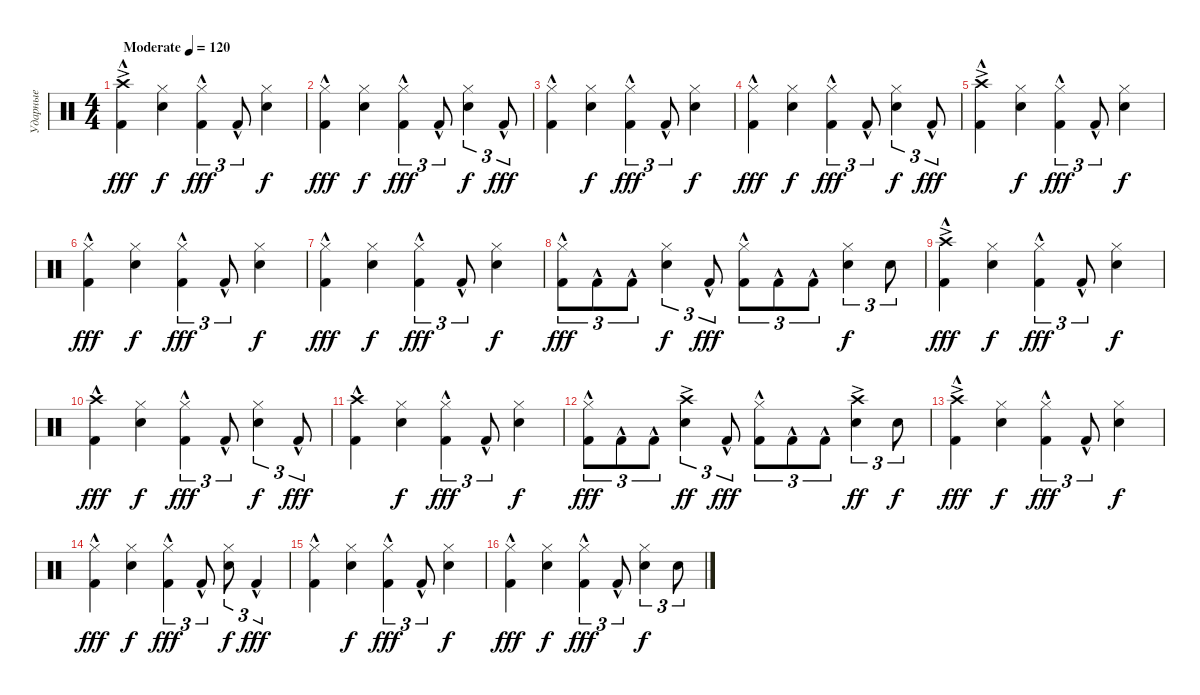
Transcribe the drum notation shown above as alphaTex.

\track ("Ударные" "Ударные") {instrument percussion}
\staff {score}
\articulation defaults
\ts (4 4)
\tempo (120 "Moderate")
\clef neutral
\ks c
("Crash high (hit)"{ac} "Kick (hit) 2"{hac}).4{dy fff} ("Hi-Hat (closed)" "Snare (hit) 2").4{dy f} ("Hi-Hat (closed)" "Kick (hit) 2"{hac}).4{tu (3 2) dy fff} "Kick (hit) 2"{hac}.8{tu (3 2)} ("Hi-Hat (closed)" "Snare (hit) 2").4{dy f} |
("Hi-Hat (closed)" "Kick (hit) 2"{hac}).4{dy fff} ("Hi-Hat (closed)" "Snare (hit) 2").4{dy f} ("Hi-Hat (closed)" "Kick (hit) 2"{hac}).4{tu (3 2) dy fff} "Kick (hit) 2"{hac}.8{tu (3 2)} ("Hi-Hat (closed)" "Snare (hit) 2").4{tu (3 2) dy f} "Kick (hit) 2"{hac}.8{tu (3 2) dy fff} |
("Hi-Hat (closed)" "Kick (hit) 2"{hac}).4 ("Hi-Hat (closed)" "Snare (hit) 2").4{dy f} ("Hi-Hat (closed)" "Kick (hit) 2"{hac}).4{tu (3 2) dy fff} "Kick (hit) 2"{hac}.8{tu (3 2)} ("Hi-Hat (closed)" "Snare (hit) 2").4{dy f} |
("Hi-Hat (closed)" "Kick (hit) 2"{hac}).4{dy fff} ("Hi-Hat (closed)" "Snare (hit) 2").4{dy f} ("Hi-Hat (closed)" "Kick (hit) 2"{hac}).4{tu (3 2) dy fff} "Kick (hit) 2"{hac}.8{tu (3 2)} ("Hi-Hat (closed)" "Snare (hit) 2").4{tu (3 2) dy f} "Kick (hit) 2"{hac}.8{tu (3 2) dy fff} |
("Crash high (hit)"{ac} "Kick (hit) 2"{hac}).4 ("Hi-Hat (closed)" "Snare (hit) 2").4{dy f} ("Hi-Hat (closed)" "Kick (hit) 2"{hac}).4{tu (3 2) dy fff} "Kick (hit) 2"{hac}.8{tu (3 2)} ("Hi-Hat (closed)" "Snare (hit) 2").4{dy f} |
("Hi-Hat (closed)" "Kick (hit) 2"{hac}).4{dy fff} ("Hi-Hat (closed)" "Snare (hit) 2").4{dy f} ("Hi-Hat (closed)" "Kick (hit) 2"{hac}).4{tu (3 2) dy fff} "Kick (hit) 2"{hac}.8{tu (3 2)} ("Hi-Hat (closed)" "Snare (hit) 2").4{dy f} |
("Hi-Hat (closed)" "Kick (hit) 2"{hac}).4{dy fff} ("Hi-Hat (closed)" "Snare (hit) 2").4{dy f} ("Hi-Hat (closed)" "Kick (hit) 2"{hac}).4{tu (3 2) dy fff} "Kick (hit) 2"{hac}.8{tu (3 2)} ("Hi-Hat (closed)" "Snare (hit) 2").4{dy f} |
("Hi-Hat (closed)" "Kick (hit) 2"{hac}).8{tu (3 2) dy fff} "Kick (hit) 2"{hac}.8{tu (3 2)} "Kick (hit) 2"{hac}.8{tu (3 2)} ("Hi-Hat (closed)" "Snare (hit) 2").4{tu (3 2) dy f} "Kick (hit) 2"{hac}.8{tu (3 2) dy fff} ("Hi-Hat (closed)" "Kick (hit) 2"{hac}).8{tu (3 2)} "Kick (hit) 2"{hac}.8{tu (3 2)} "Kick (hit) 2"{hac}.8{tu (3 2)} ("Hi-Hat (closed)" "Snare (hit) 2").4{tu (3 2) dy f} "Snare (hit) 2".8{tu (3 2)} |
("Crash high (hit)"{ac} "Kick (hit) 2"{hac}).4{dy fff} ("Hi-Hat (closed)" "Snare (hit) 2").4{dy f} ("Hi-Hat (closed)" "Kick (hit) 2"{hac}).4{tu (3 2) dy fff} "Kick (hit) 2"{hac}.8{tu (3 2)} ("Hi-Hat (closed)" "Snare (hit) 2").4{dy f} |
("Crash high (hit)" "Kick (hit) 2"{hac}).4{dy fff} ("Hi-Hat (closed)" "Snare (hit) 2").4{dy f} ("Hi-Hat (closed)" "Kick (hit) 2"{hac}).4{tu (3 2) dy fff} "Kick (hit) 2"{hac}.8{tu (3 2)} ("Hi-Hat (closed)" "Snare (hit) 2").4{tu (3 2) dy f} "Kick (hit) 2"{hac}.8{tu (3 2) dy fff} |
("Crash high (hit)" "Kick (hit) 2"{hac}).4 ("Hi-Hat (closed)" "Snare (hit) 2").4{dy f} ("Hi-Hat (closed)" "Kick (hit) 2"{hac}).4{tu (3 2) dy fff} "Kick (hit) 2"{hac}.8{tu (3 2)} ("Hi-Hat (closed)" "Snare (hit) 2").4{dy f} |
("Hi-Hat (closed)" "Kick (hit) 2"{hac}).8{tu (3 2) dy fff} "Kick (hit) 2"{hac}.8{tu (3 2)} "Kick (hit) 2"{hac}.8{tu (3 2)} ("Crash high (hit)"{ac} "Snare (hit) 2").4{tu (3 2) dy ff} "Kick (hit) 2"{hac}.8{tu (3 2) dy fff} ("Hi-Hat (closed)" "Kick (hit) 2"{hac}).8{tu (3 2)} "Kick (hit) 2"{hac}.8{tu (3 2)} "Kick (hit) 2"{hac}.8{tu (3 2)} ("Crash high (hit)"{ac} "Snare (hit) 2").4{tu (3 2) dy ff} "Snare (hit) 2".8{tu (3 2) dy f} |
("Crash high (hit)"{ac} "Kick (hit) 2"{hac}).4{dy fff} ("Hi-Hat (closed)" "Snare (hit) 2").4{dy f} ("Hi-Hat (closed)" "Kick (hit) 2"{hac}).4{tu (3 2) dy fff} "Kick (hit) 2"{hac}.8{tu (3 2)} ("Hi-Hat (closed)" "Snare (hit) 2").4{dy f} |
("Hi-Hat (closed)" "Kick (hit) 2"{hac}).4{dy fff} ("Hi-Hat (closed)" "Snare (hit) 2").4{dy f} ("Hi-Hat (closed)" "Kick (hit) 2"{hac}).4{tu (3 2) dy fff} "Kick (hit) 2"{hac}.8{tu (3 2)} ("Hi-Hat (closed)" "Snare (hit) 2").8{tu (3 2) dy f} "Kick (hit) 2"{hac}.4{tu (3 2) dy fff} |
("Hi-Hat (closed)" "Kick (hit) 2"{hac}).4 ("Hi-Hat (closed)" "Snare (hit) 2").4{dy f} ("Hi-Hat (closed)" "Kick (hit) 2"{hac}).4{tu (3 2) dy fff} "Kick (hit) 2"{hac}.8{tu (3 2)} ("Hi-Hat (closed)" "Snare (hit) 2").4{dy f} |
("Hi-Hat (closed)" "Kick (hit) 2"{hac}).4{dy fff} ("Hi-Hat (closed)" "Snare (hit) 2").4{dy f} ("Hi-Hat (closed)" "Kick (hit) 2"{hac}).4{tu (3 2) dy fff} "Kick (hit) 2"{hac}.8{tu (3 2)} ("Hi-Hat (closed)" "Snare (hit) 2").4{tu (3 2) dy f} "Snare (hit) 2".8{tu (3 2)}
